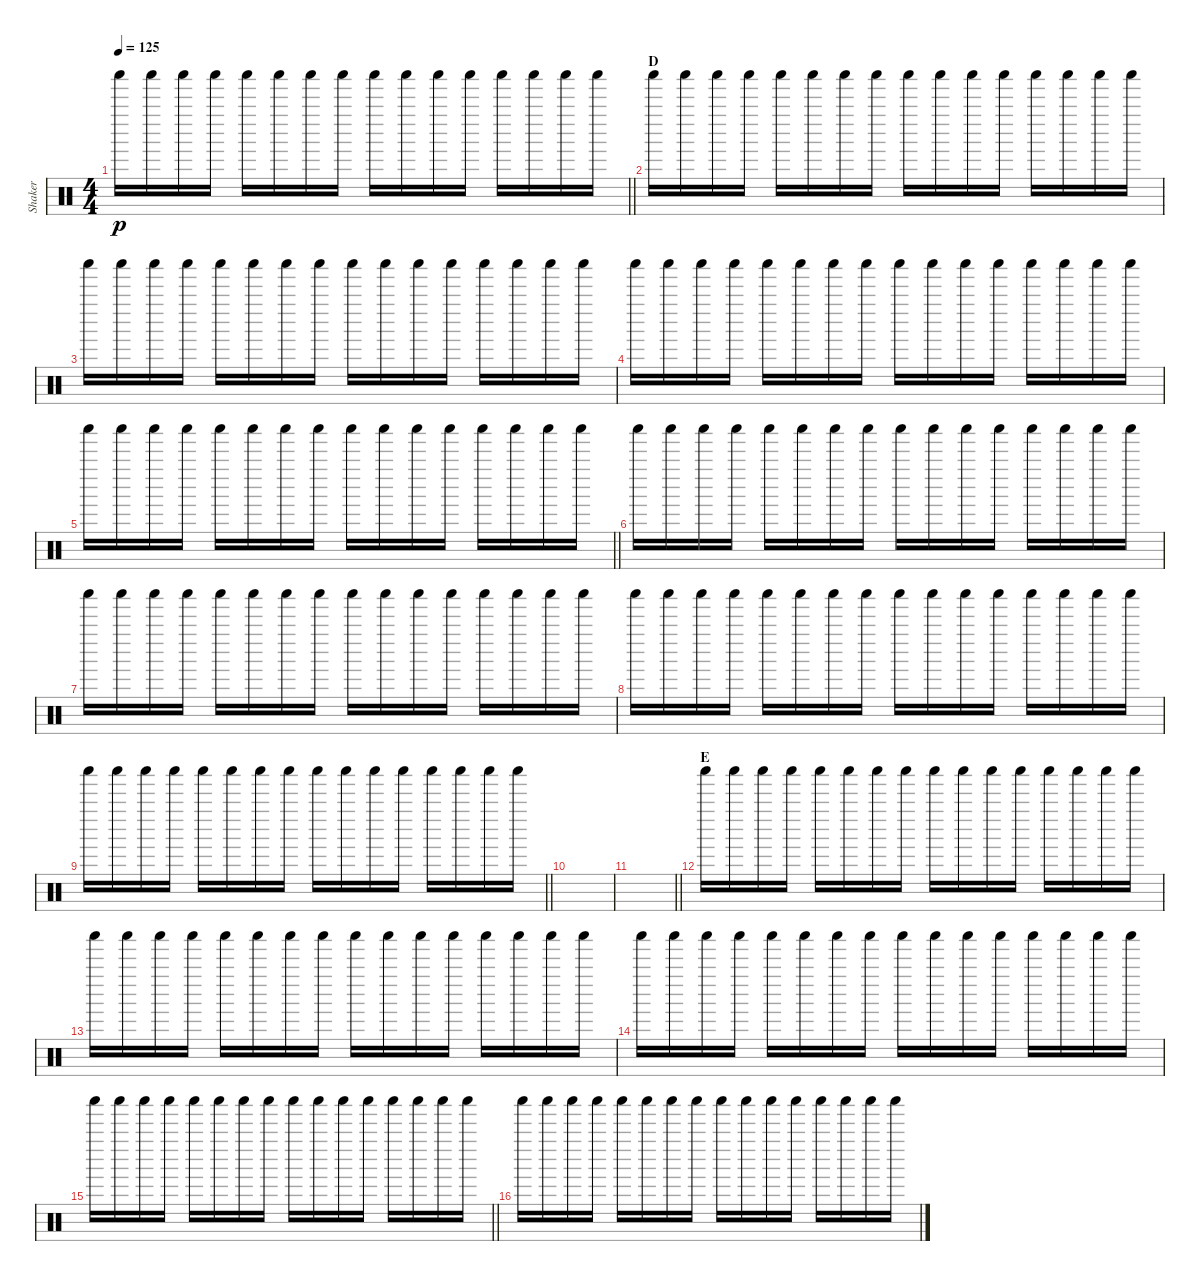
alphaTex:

\track ("Shaker" "Shaker") {instrument percussion}
\staff {score}
\articulation defaults
\ts (4 4)
\tempo 125
\clef neutral
\barLineRight lightlight
\ks c "Shaker (hit)".16{dy p} "Shaker (hit)".16 "Shaker (hit)".16 "Shaker (hit)".16 "Shaker (hit)".16 "Shaker (hit)".16 "Shaker (hit)".16 "Shaker (hit)".16 "Shaker (hit)".16 "Shaker (hit)".16 "Shaker (hit)".16 "Shaker (hit)".16 "Shaker (hit)".16 "Shaker (hit)".16 "Shaker (hit)".16 "Shaker (hit)".16
|
\section ("" "D")
"Shaker (hit)".16 "Shaker (hit)".16 "Shaker (hit)".16 "Shaker (hit)".16 "Shaker (hit)".16 "Shaker (hit)".16 "Shaker (hit)".16 "Shaker (hit)".16 "Shaker (hit)".16 "Shaker (hit)".16 "Shaker (hit)".16 "Shaker (hit)".16 "Shaker (hit)".16 "Shaker (hit)".16 "Shaker (hit)".16 "Shaker (hit)".16 |
"Shaker (hit)".16 "Shaker (hit)".16 "Shaker (hit)".16 "Shaker (hit)".16 "Shaker (hit)".16 "Shaker (hit)".16 "Shaker (hit)".16 "Shaker (hit)".16 "Shaker (hit)".16 "Shaker (hit)".16 "Shaker (hit)".16 "Shaker (hit)".16 "Shaker (hit)".16 "Shaker (hit)".16 "Shaker (hit)".16 "Shaker (hit)".16 |
"Shaker (hit)".16 "Shaker (hit)".16 "Shaker (hit)".16 "Shaker (hit)".16 "Shaker (hit)".16 "Shaker (hit)".16 "Shaker (hit)".16 "Shaker (hit)".16 "Shaker (hit)".16 "Shaker (hit)".16 "Shaker (hit)".16 "Shaker (hit)".16 "Shaker (hit)".16 "Shaker (hit)".16 "Shaker (hit)".16 "Shaker (hit)".16 |
\barLineRight lightlight "Shaker (hit)".16 "Shaker (hit)".16 "Shaker (hit)".16 "Shaker (hit)".16 "Shaker (hit)".16 "Shaker (hit)".16 "Shaker (hit)".16 "Shaker (hit)".16 "Shaker (hit)".16 "Shaker (hit)".16 "Shaker (hit)".16 "Shaker (hit)".16 "Shaker (hit)".16 "Shaker (hit)".16 "Shaker (hit)".16 "Shaker (hit)".16
|
"Shaker (hit)".16 "Shaker (hit)".16 "Shaker (hit)".16 "Shaker (hit)".16 "Shaker (hit)".16 "Shaker (hit)".16 "Shaker (hit)".16 "Shaker (hit)".16 "Shaker (hit)".16 "Shaker (hit)".16 "Shaker (hit)".16 "Shaker (hit)".16 "Shaker (hit)".16 "Shaker (hit)".16 "Shaker (hit)".16 "Shaker (hit)".16 |
"Shaker (hit)".16 "Shaker (hit)".16 "Shaker (hit)".16 "Shaker (hit)".16 "Shaker (hit)".16 "Shaker (hit)".16 "Shaker (hit)".16 "Shaker (hit)".16 "Shaker (hit)".16 "Shaker (hit)".16 "Shaker (hit)".16 "Shaker (hit)".16 "Shaker (hit)".16 "Shaker (hit)".16 "Shaker (hit)".16 "Shaker (hit)".16 |
"Shaker (hit)".16 "Shaker (hit)".16 "Shaker (hit)".16 "Shaker (hit)".16 "Shaker (hit)".16 "Shaker (hit)".16 "Shaker (hit)".16 "Shaker (hit)".16 "Shaker (hit)".16 "Shaker (hit)".16 "Shaker (hit)".16 "Shaker (hit)".16 "Shaker (hit)".16 "Shaker (hit)".16 "Shaker (hit)".16 "Shaker (hit)".16 |
\barLineRight lightlight "Shaker (hit)".16 "Shaker (hit)".16 "Shaker (hit)".16 "Shaker (hit)".16 "Shaker (hit)".16 "Shaker (hit)".16 "Shaker (hit)".16 "Shaker (hit)".16 "Shaker (hit)".16 "Shaker (hit)".16 "Shaker (hit)".16 "Shaker (hit)".16 "Shaker (hit)".16 "Shaker (hit)".16 "Shaker (hit)".16 "Shaker (hit)".16
|
|
\barLineRight lightlight
|
\section ("" "E")
"Shaker (hit)".16 "Shaker (hit)".16 "Shaker (hit)".16 "Shaker (hit)".16 "Shaker (hit)".16 "Shaker (hit)".16 "Shaker (hit)".16 "Shaker (hit)".16 "Shaker (hit)".16 "Shaker (hit)".16 "Shaker (hit)".16 "Shaker (hit)".16 "Shaker (hit)".16 "Shaker (hit)".16 "Shaker (hit)".16 "Shaker (hit)".16 |
"Shaker (hit)".16 "Shaker (hit)".16 "Shaker (hit)".16 "Shaker (hit)".16 "Shaker (hit)".16 "Shaker (hit)".16 "Shaker (hit)".16 "Shaker (hit)".16 "Shaker (hit)".16 "Shaker (hit)".16 "Shaker (hit)".16 "Shaker (hit)".16 "Shaker (hit)".16 "Shaker (hit)".16 "Shaker (hit)".16 "Shaker (hit)".16 |
"Shaker (hit)".16 "Shaker (hit)".16 "Shaker (hit)".16 "Shaker (hit)".16 "Shaker (hit)".16 "Shaker (hit)".16 "Shaker (hit)".16 "Shaker (hit)".16 "Shaker (hit)".16 "Shaker (hit)".16 "Shaker (hit)".16 "Shaker (hit)".16 "Shaker (hit)".16 "Shaker (hit)".16 "Shaker (hit)".16 "Shaker (hit)".16 |
\barLineRight lightlight "Shaker (hit)".16 "Shaker (hit)".16 "Shaker (hit)".16 "Shaker (hit)".16 "Shaker (hit)".16 "Shaker (hit)".16 "Shaker (hit)".16 "Shaker (hit)".16 "Shaker (hit)".16 "Shaker (hit)".16 "Shaker (hit)".16 "Shaker (hit)".16 "Shaker (hit)".16 "Shaker (hit)".16 "Shaker (hit)".16 "Shaker (hit)".16
|
"Shaker (hit)".16 "Shaker (hit)".16 "Shaker (hit)".16 "Shaker (hit)".16 "Shaker (hit)".16 "Shaker (hit)".16 "Shaker (hit)".16 "Shaker (hit)".16 "Shaker (hit)".16 "Shaker (hit)".16 "Shaker (hit)".16 "Shaker (hit)".16 "Shaker (hit)".16 "Shaker (hit)".16 "Shaker (hit)".16 "Shaker (hit)".16
